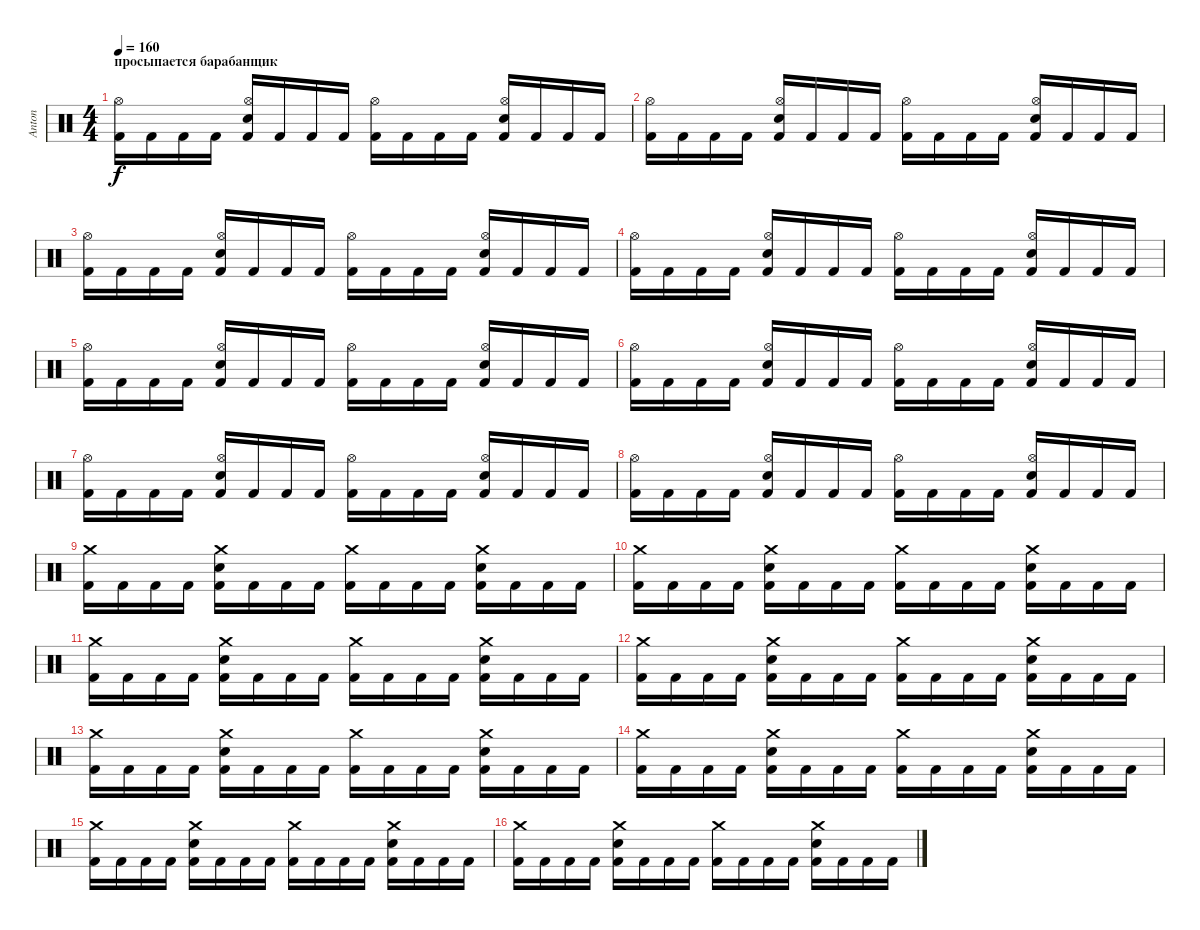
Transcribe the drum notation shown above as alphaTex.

\track ("Anton" "Anton") {instrument percussion}
\staff {score}
\articulation defaults
\ts (4 4)
\section ("" "просыпается барабанщик")
\tempo 160
\clef neutral
\ks c
("Kick (hit) 2" "Hi-Hat (open)").16{dy f} "Kick (hit) 2".16 "Kick (hit) 2".16 "Kick (hit) 2".16 ("Kick (hit) 2" "Hi-Hat (open)" "Electric Snare (hit)").16 "Kick (hit) 2".16 "Kick (hit) 2".16 "Kick (hit) 2".16 ("Kick (hit) 2" "Hi-Hat (open)").16 "Kick (hit) 2".16 "Kick (hit) 2".16 "Kick (hit) 2".16 ("Kick (hit) 2" "Hi-Hat (open)" "Electric Snare (hit)").16 "Kick (hit) 2".16 "Kick (hit) 2".16 "Kick (hit) 2".16 |
("Kick (hit) 2" "Hi-Hat (open)").16 "Kick (hit) 2".16 "Kick (hit) 2".16 "Kick (hit) 2".16 ("Kick (hit) 2" "Hi-Hat (open)" "Electric Snare (hit)").16 "Kick (hit) 2".16 "Kick (hit) 2".16 "Kick (hit) 2".16 ("Kick (hit) 2" "Hi-Hat (open)").16 "Kick (hit) 2".16 "Kick (hit) 2".16 "Kick (hit) 2".16 ("Kick (hit) 2" "Hi-Hat (open)" "Electric Snare (hit)").16 "Kick (hit) 2".16 "Kick (hit) 2".16 "Kick (hit) 2".16 |
("Kick (hit) 2" "Hi-Hat (open)").16 "Kick (hit) 2".16 "Kick (hit) 2".16 "Kick (hit) 2".16 ("Kick (hit) 2" "Hi-Hat (open)" "Electric Snare (hit)").16 "Kick (hit) 2".16 "Kick (hit) 2".16 "Kick (hit) 2".16 ("Kick (hit) 2" "Hi-Hat (open)").16 "Kick (hit) 2".16 "Kick (hit) 2".16 "Kick (hit) 2".16 ("Kick (hit) 2" "Hi-Hat (open)" "Electric Snare (hit)").16 "Kick (hit) 2".16 "Kick (hit) 2".16 "Kick (hit) 2".16 |
("Kick (hit) 2" "Hi-Hat (open)").16 "Kick (hit) 2".16 "Kick (hit) 2".16 "Kick (hit) 2".16 ("Kick (hit) 2" "Hi-Hat (open)" "Electric Snare (hit)").16 "Kick (hit) 2".16 "Kick (hit) 2".16 "Kick (hit) 2".16 ("Kick (hit) 2" "Hi-Hat (open)").16 "Kick (hit) 2".16 "Kick (hit) 2".16 "Kick (hit) 2".16 ("Kick (hit) 2" "Hi-Hat (open)" "Electric Snare (hit)").16 "Kick (hit) 2".16 "Kick (hit) 2".16 "Kick (hit) 2".16 |
("Kick (hit) 2" "Hi-Hat (open)").16 "Kick (hit) 2".16 "Kick (hit) 2".16 "Kick (hit) 2".16 ("Kick (hit) 2" "Hi-Hat (open)" "Electric Snare (hit)").16 "Kick (hit) 2".16 "Kick (hit) 2".16 "Kick (hit) 2".16 ("Kick (hit) 2" "Hi-Hat (open)").16 "Kick (hit) 2".16 "Kick (hit) 2".16 "Kick (hit) 2".16 ("Kick (hit) 2" "Hi-Hat (open)" "Electric Snare (hit)").16 "Kick (hit) 2".16 "Kick (hit) 2".16 "Kick (hit) 2".16 |
("Kick (hit) 2" "Hi-Hat (open)").16 "Kick (hit) 2".16 "Kick (hit) 2".16 "Kick (hit) 2".16 ("Kick (hit) 2" "Hi-Hat (open)" "Electric Snare (hit)").16 "Kick (hit) 2".16 "Kick (hit) 2".16 "Kick (hit) 2".16 ("Kick (hit) 2" "Hi-Hat (open)").16 "Kick (hit) 2".16 "Kick (hit) 2".16 "Kick (hit) 2".16 ("Kick (hit) 2" "Hi-Hat (open)" "Electric Snare (hit)").16 "Kick (hit) 2".16 "Kick (hit) 2".16 "Kick (hit) 2".16 |
("Kick (hit) 2" "Hi-Hat (open)").16 "Kick (hit) 2".16 "Kick (hit) 2".16 "Kick (hit) 2".16 ("Kick (hit) 2" "Hi-Hat (open)" "Electric Snare (hit)").16 "Kick (hit) 2".16 "Kick (hit) 2".16 "Kick (hit) 2".16 ("Kick (hit) 2" "Hi-Hat (open)").16 "Kick (hit) 2".16 "Kick (hit) 2".16 "Kick (hit) 2".16 ("Kick (hit) 2" "Hi-Hat (open)" "Electric Snare (hit)").16 "Kick (hit) 2".16 "Kick (hit) 2".16 "Kick (hit) 2".16 |
("Kick (hit) 2" "Hi-Hat (open)").16 "Kick (hit) 2".16 "Kick (hit) 2".16 "Kick (hit) 2".16 ("Kick (hit) 2" "Hi-Hat (open)" "Electric Snare (hit)").16 "Kick (hit) 2".16 "Kick (hit) 2".16 "Kick (hit) 2".16 ("Kick (hit) 2" "Hi-Hat (open)").16 "Kick (hit) 2".16 "Kick (hit) 2".16 "Kick (hit) 2".16 ("Kick (hit) 2" "Hi-Hat (open)" "Electric Snare (hit)").16 "Kick (hit) 2".16 "Kick (hit) 2".16 "Kick (hit) 2".16 |
("Kick (hit) 2" "Crash medium (hit)").16 "Kick (hit) 2".16 "Kick (hit) 2".16 "Kick (hit) 2".16 ("Kick (hit) 2" "Crash medium (hit)" "Electric Snare (hit)").16 "Kick (hit) 2".16 "Kick (hit) 2".16 "Kick (hit) 2".16 ("Kick (hit) 2" "Crash medium (hit)").16 "Kick (hit) 2".16 "Kick (hit) 2".16 "Kick (hit) 2".16 ("Kick (hit) 2" "Crash medium (hit)" "Electric Snare (hit)").16 "Kick (hit) 2".16 "Kick (hit) 2".16 "Kick (hit) 2".16 |
("Kick (hit) 2" "Crash medium (hit)").16 "Kick (hit) 2".16 "Kick (hit) 2".16 "Kick (hit) 2".16 ("Kick (hit) 2" "Crash medium (hit)" "Electric Snare (hit)").16 "Kick (hit) 2".16 "Kick (hit) 2".16 "Kick (hit) 2".16 ("Kick (hit) 2" "Crash medium (hit)").16 "Kick (hit) 2".16 "Kick (hit) 2".16 "Kick (hit) 2".16 ("Kick (hit) 2" "Crash medium (hit)" "Electric Snare (hit)").16 "Kick (hit) 2".16 "Kick (hit) 2".16 "Kick (hit) 2".16 |
("Kick (hit) 2" "Crash medium (hit)").16 "Kick (hit) 2".16 "Kick (hit) 2".16 "Kick (hit) 2".16 ("Kick (hit) 2" "Crash medium (hit)" "Electric Snare (hit)").16 "Kick (hit) 2".16 "Kick (hit) 2".16 "Kick (hit) 2".16 ("Kick (hit) 2" "Crash medium (hit)").16 "Kick (hit) 2".16 "Kick (hit) 2".16 "Kick (hit) 2".16 ("Kick (hit) 2" "Crash medium (hit)" "Electric Snare (hit)").16 "Kick (hit) 2".16 "Kick (hit) 2".16 "Kick (hit) 2".16 |
("Kick (hit) 2" "Crash medium (hit)").16 "Kick (hit) 2".16 "Kick (hit) 2".16 "Kick (hit) 2".16 ("Kick (hit) 2" "Crash medium (hit)" "Electric Snare (hit)").16 "Kick (hit) 2".16 "Kick (hit) 2".16 "Kick (hit) 2".16 ("Kick (hit) 2" "Crash medium (hit)").16 "Kick (hit) 2".16 "Kick (hit) 2".16 "Kick (hit) 2".16 ("Kick (hit) 2" "Crash medium (hit)" "Electric Snare (hit)").16 "Kick (hit) 2".16 "Kick (hit) 2".16 "Kick (hit) 2".16 |
("Kick (hit) 2" "Crash medium (hit)").16 "Kick (hit) 2".16 "Kick (hit) 2".16 "Kick (hit) 2".16 ("Kick (hit) 2" "Crash medium (hit)" "Electric Snare (hit)").16 "Kick (hit) 2".16 "Kick (hit) 2".16 "Kick (hit) 2".16 ("Kick (hit) 2" "Crash medium (hit)").16 "Kick (hit) 2".16 "Kick (hit) 2".16 "Kick (hit) 2".16 ("Kick (hit) 2" "Crash medium (hit)" "Electric Snare (hit)").16 "Kick (hit) 2".16 "Kick (hit) 2".16 "Kick (hit) 2".16 |
("Kick (hit) 2" "Crash medium (hit)").16 "Kick (hit) 2".16 "Kick (hit) 2".16 "Kick (hit) 2".16 ("Kick (hit) 2" "Crash medium (hit)" "Electric Snare (hit)").16 "Kick (hit) 2".16 "Kick (hit) 2".16 "Kick (hit) 2".16 ("Kick (hit) 2" "Crash medium (hit)").16 "Kick (hit) 2".16 "Kick (hit) 2".16 "Kick (hit) 2".16 ("Kick (hit) 2" "Crash medium (hit)" "Electric Snare (hit)").16 "Kick (hit) 2".16 "Kick (hit) 2".16 "Kick (hit) 2".16 |
("Kick (hit) 2" "Crash medium (hit)").16 "Kick (hit) 2".16 "Kick (hit) 2".16 "Kick (hit) 2".16 ("Kick (hit) 2" "Crash medium (hit)" "Electric Snare (hit)").16 "Kick (hit) 2".16 "Kick (hit) 2".16 "Kick (hit) 2".16 ("Kick (hit) 2" "Crash medium (hit)").16 "Kick (hit) 2".16 "Kick (hit) 2".16 "Kick (hit) 2".16 ("Kick (hit) 2" "Crash medium (hit)" "Electric Snare (hit)").16 "Kick (hit) 2".16 "Kick (hit) 2".16 "Kick (hit) 2".16 |
("Kick (hit) 2" "Crash medium (hit)").16 "Kick (hit) 2".16 "Kick (hit) 2".16 "Kick (hit) 2".16 ("Kick (hit) 2" "Crash medium (hit)" "Electric Snare (hit)").16 "Kick (hit) 2".16 "Kick (hit) 2".16 "Kick (hit) 2".16 ("Kick (hit) 2" "Crash medium (hit)").16 "Kick (hit) 2".16 "Kick (hit) 2".16 "Kick (hit) 2".16 ("Kick (hit) 2" "Crash medium (hit)" "Electric Snare (hit)").16 "Kick (hit) 2".16 "Kick (hit) 2".16 "Kick (hit) 2".16
